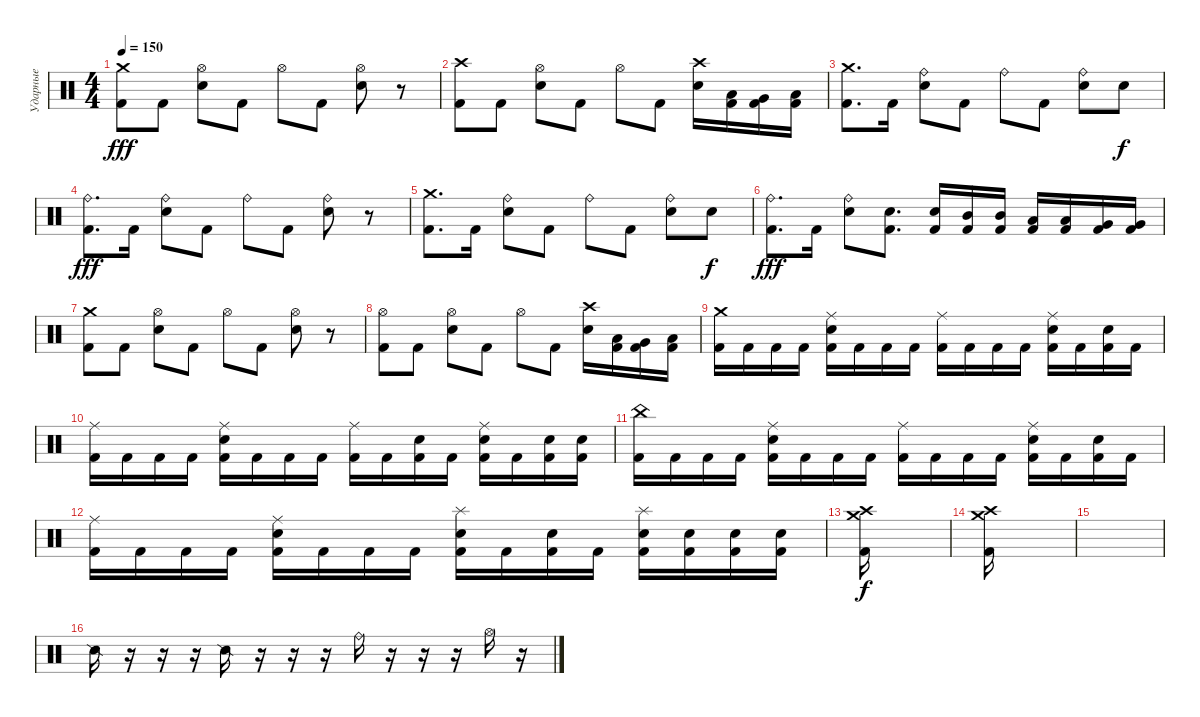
\track ("Ударные" "Ударные") {instrument percussion}
\staff {score}
\articulation defaults
\ts (4 4)
\tempo 150
\clef neutral
\ks c
("Crash medium (hit)" "Kick (hit) 2").8{dy fff} "Kick (hit) 2".8 ("Hi-Hat (open)" "Snare (hit) 2").8 "Kick (hit) 2".8 "Hi-Hat (open)".8 "Kick (hit) 2".8 ("Hi-Hat (open)" "Snare (hit) 2").8 r.8 |
("Crash high (hit)" "Kick (hit) 2").8 "Kick (hit) 2".8 ("Hi-Hat (open)" "Snare (hit) 2").8 "Kick (hit) 2".8 "Hi-Hat (open)".8 "Kick (hit) 2".8 ("Crash high (hit)" "Snare (hit) 2").16 ("Low Tom (hit)" "Kick (hit) 2").16 ("Very Low Tom (hit)" "Kick (hit) 2").16 ("Low Floor Tom (hit)" "Kick (hit) 2").16 |
("Crash medium (hit)" "Kick (hit) 2").8{d} "Kick (hit) 2".16 ("Ride (bell)" "Snare (hit) 2").8 "Kick (hit) 2".8 "Ride (bell)".8 "Kick (hit) 2".8 ("Ride (bell)" "Snare (hit) 2").8 "Snare (hit) 2".8{dy f} |
("Ride (bell)" "Kick (hit) 2").8{d dy fff} "Kick (hit) 2".16 ("Ride (bell)" "Snare (hit) 2").8 "Kick (hit) 2".8 "Ride (bell)".8 "Kick (hit) 2".8 ("Ride (bell)" "Snare (hit) 2").8 r.8 |
("Crash medium (hit)" "Kick (hit) 2").8{d} "Kick (hit) 2".16 ("Ride (bell)" "Snare (hit) 2").8 "Kick (hit) 2".8 "Ride (bell)".8 "Kick (hit) 2".8 ("Ride (bell)" "Snare (hit) 2").8 "Snare (hit) 2".8{dy f} |
("Ride (bell)" "Kick (hit) 2").8{d dy fff} "Kick (hit) 2".16 ("Ride (bell)" "Snare (hit) 2").8 ("Snare (hit) 2" "Kick (hit) 2").8{d} ("Snare (hit) 2" "Kick (hit) 2").16 ("Mid Tom (hit)" "Kick (hit) 2").16 ("Mid Tom (hit)" "Kick (hit) 2").16 ("Low Tom (hit)" "Kick (hit) 2").16 ("Low Tom (hit)" "Kick (hit) 2").16 ("Very Low Tom (hit)" "Kick (hit) 2").16 ("Very Low Tom (hit)" "Kick (hit) 2").16 |
("Crash medium (hit)" "Kick (hit) 2").8 "Kick (hit) 2".8 ("Hi-Hat (open)" "Snare (hit) 2").8 "Kick (hit) 2".8 "Hi-Hat (open)".8 "Kick (hit) 2".8 ("Hi-Hat (open)" "Snare (hit) 2").8 r.8 |
("Hi-Hat (open)" "Kick (hit) 2").8 "Kick (hit) 2".8 ("Hi-Hat (open)" "Snare (hit) 2").8 "Kick (hit) 2".8 "Hi-Hat (open)".8 "Kick (hit) 2".8 ("Crash high (hit)" "Snare (hit) 2").16 ("Low Tom (hit)" "Kick (hit) 2").16 ("Very Low Tom (hit)" "Kick (hit) 2").16 ("Low Floor Tom (hit)" "Kick (hit) 2").16 |
("Crash medium (hit)" "Kick (hit) 2").16 "Kick (hit) 2".16 "Kick (hit) 2".16 "Kick (hit) 2".16 ("Ride (middle)" "Snare (hit) 2" "Kick (hit) 2").16 "Kick (hit) 2".16 "Kick (hit) 2".16 "Kick (hit) 2".16 ("Ride (middle)" "Kick (hit) 2").16 "Kick (hit) 2".16 "Kick (hit) 2".16 "Kick (hit) 2".16 ("Ride (middle)" "Snare (hit) 2" "Kick (hit) 2").16 "Kick (hit) 2".16 ("Snare (hit) 2" "Kick (hit) 2").16 "Kick (hit) 2".16 |
("Ride (middle)" "Kick (hit) 2").16 "Kick (hit) 2".16 "Kick (hit) 2".16 "Kick (hit) 2".16 ("Ride (middle)" "Snare (hit) 2" "Kick (hit) 2").16 "Kick (hit) 2".16 "Kick (hit) 2".16 "Kick (hit) 2".16 ("Ride (middle)" "Kick (hit) 2").16 "Kick (hit) 2".16 ("Snare (hit) 2" "Kick (hit) 2").16 "Kick (hit) 2".16 ("Ride (middle)" "Snare (hit) 2" "Kick (hit) 2").16 "Kick (hit) 2".16 ("Snare (hit) 2" "Kick (hit) 2").16 ("Snare (hit) 2" "Kick (hit) 2").16 |
("China (hit)" "Kick (hit) 2").16 "Kick (hit) 2".16 "Kick (hit) 2".16 "Kick (hit) 2".16 ("Ride (middle)" "Snare (hit) 2" "Kick (hit) 2").16 "Kick (hit) 2".16 "Kick (hit) 2".16 "Kick (hit) 2".16 ("Ride (middle)" "Kick (hit) 2").16 "Kick (hit) 2".16 "Kick (hit) 2".16 "Kick (hit) 2".16 ("Ride (middle)" "Snare (hit) 2" "Kick (hit) 2").16 "Kick (hit) 2".16 ("Snare (hit) 2" "Kick (hit) 2").16 "Kick (hit) 2".16 |
("Ride (middle)" "Kick (hit) 2").16 "Kick (hit) 2".16 "Kick (hit) 2".16 "Kick (hit) 2".16 ("Ride (middle)" "Snare (hit) 2" "Kick (hit) 2").16 "Kick (hit) 2".16 "Kick (hit) 2".16 "Kick (hit) 2".16 ("Splash (hit)" "Snare (hit) 2" "Kick (hit) 2").16 "Kick (hit) 2".16 ("Snare (hit) 2" "Kick (hit) 2").16 "Kick (hit) 2".16 ("Splash (hit)" "Snare (hit) 2" "Kick (hit) 2").16 ("Snare (hit) 2" "Kick (hit) 2").16 ("Snare (hit) 2" "Kick (hit) 2").16 ("Snare (hit) 2" "Kick (hit) 2").16 |
("Crash medium (hit)" "Crash high (hit)" "Kick (hit) 2").16{dy f} |
("Crash medium (hit)" "Crash high (hit)" "Kick (hit) 2").16 |
|
"Snare (side stick) 2".16 r.16 r.16 r.16 "Snare (side stick) 2".16 r.16 r.16 r.16 "Ride (bell)".16 r.16 r.16 r.16 "Hi-Hat (open)".16 r.16
